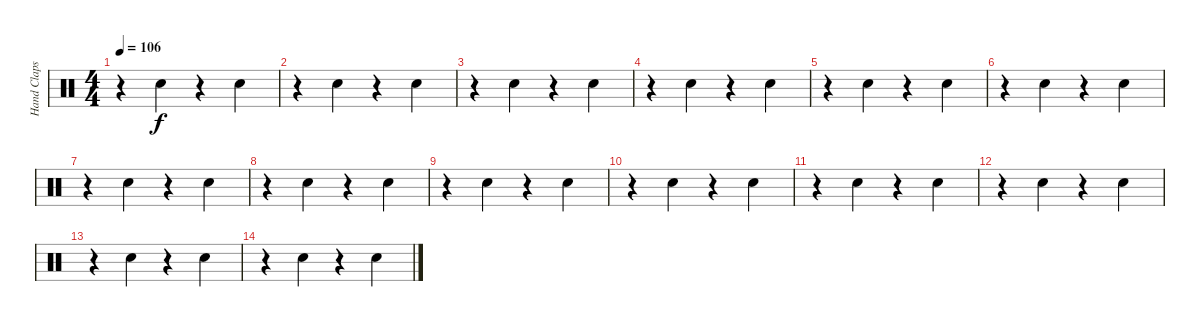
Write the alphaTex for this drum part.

\track ("Hand Claps" "Hand Claps") {instrument percussion}
\staff {score}
\articulation defaults
\ts (4 4)
\tempo 106
\clef neutral
\ks c
r.4{dy f} "Hand Clap (hit)".4 r.4 "Hand Clap (hit)".4 |
r.4 "Hand Clap (hit)".4 r.4 "Hand Clap (hit)".4 |
r.4 "Hand Clap (hit)".4 r.4 "Hand Clap (hit)".4 |
r.4 "Hand Clap (hit)".4 r.4 "Hand Clap (hit)".4 |
r.4 "Hand Clap (hit)".4 r.4 "Hand Clap (hit)".4 |
r.4 "Hand Clap (hit)".4 r.4 "Hand Clap (hit)".4 |
r.4 "Hand Clap (hit)".4 r.4 "Hand Clap (hit)".4 |
r.4 "Hand Clap (hit)".4 r.4 "Hand Clap (hit)".4 |
r.4{volume 11} "Hand Clap (hit)".4 r.4 "Hand Clap (hit)".4 |
r.4 "Hand Clap (hit)".4 r.4 "Hand Clap (hit)".4 |
r.4{volume 7} "Hand Clap (hit)".4 r.4 "Hand Clap (hit)".4 |
r.4 "Hand Clap (hit)".4 r.4 "Hand Clap (hit)".4 |
r.4{volume 3} "Hand Clap (hit)".4 r.4 "Hand Clap (hit)".4 |
r.4 "Hand Clap (hit)".4 r.4 "Hand Clap (hit)".4
